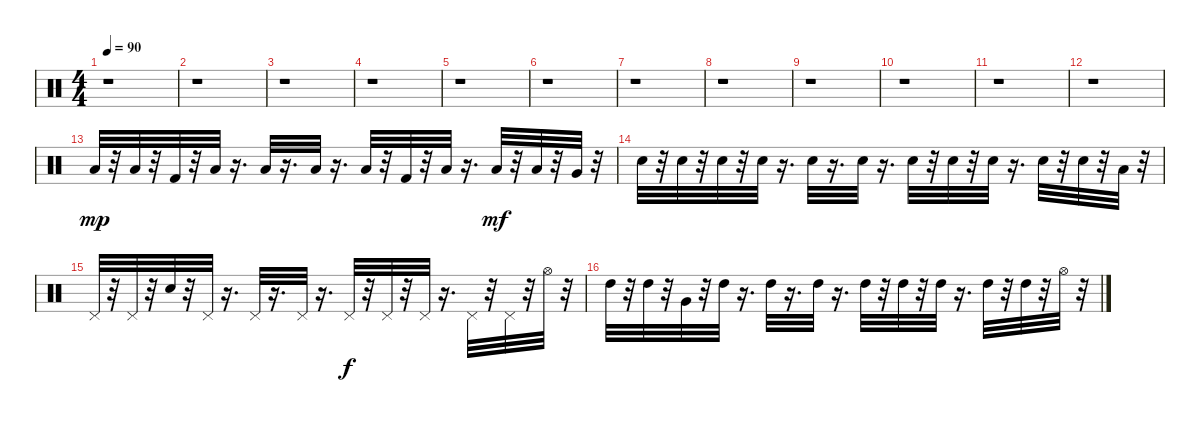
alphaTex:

\track "" {instrument percussion}
\staff {score}
\articulation defaults
\ts (4 4)
\tempo 90
\clef neutral
\ks c
r.1{dy mp} |
r.1 |
r.1 |
r.1 |
r.1 |
r.1 |
r.1 |
r.1 |
r.1 |
r.1 |
r.1 |
r.1 |
"Low Floor Tom (hit)".32 r.32 "Low Floor Tom (hit)".32 r.32 "Kick (hit) 2".32 r.32 "Low Floor Tom (hit)".32 r.16{d} "Low Floor Tom (hit)".32 r.16{d} "Low Floor Tom (hit)".32 r.16{d} "Low Floor Tom (hit)".32 r.32 "Kick (hit) 2".32 r.32 "Low Floor Tom (hit)".32 r.16{d} "Low Floor Tom (hit)".32{dy mf} r.32 "Low Floor Tom (hit)".32 r.32 "Very Low Tom (hit)".32 r.32 |
"Hand Clap (hit)".32 r.32 "Hand Clap (hit)".32 r.32 "Metronome (bell)".32 r.32 "Hand Clap (hit)".32 r.16{d} "Hand Clap (hit)".32 r.16{d} "Hand Clap (hit)".32 r.16{d} "Hand Clap (hit)".32 r.32 "Hand Clap (hit)".32 r.32 "Hand Clap (hit)".32 r.16{d} "Hand Clap (hit)".32 r.32 "Hand Clap (hit)".32 r.32 "Low Floor Tom (hit)".32 r.32 |
"Pedal Hi-Hat (hit)".32 r.32 "Pedal Hi-Hat (hit)".32 r.32 "Hand Clap (hit)".32 r.32 "Pedal Hi-Hat (hit)".32 r.16{d} "Pedal Hi-Hat (hit)".32 r.16{d} "Pedal Hi-Hat (hit)".32 r.16{d} "Pedal Hi-Hat (hit)".32{dy f} r.32 "Pedal Hi-Hat (hit)".32 r.32 "Pedal Hi-Hat (hit)".32 r.16{d} "Pedal Hi-Hat (hit)".32 r.32 "Pedal Hi-Hat (hit)".32 r.32 "Hi-Hat (open)".32 r.32 |
"High Tom (hit)".32 r.32 "High Tom (hit)".32 r.32 "Very Low Tom (hit)".32 r.32 "High Tom (hit)".32 r.16{d} "High Tom (hit)".32 r.16{d} "High Tom (hit)".32 r.16{d} "High Tom (hit)".32 r.32 "High Tom (hit)".32 r.32 "High Tom (hit)".32 r.16{d} "High Tom (hit)".32 r.32 "High Tom (hit)".32 r.32 "Hi-Hat (open)".32 r.32
